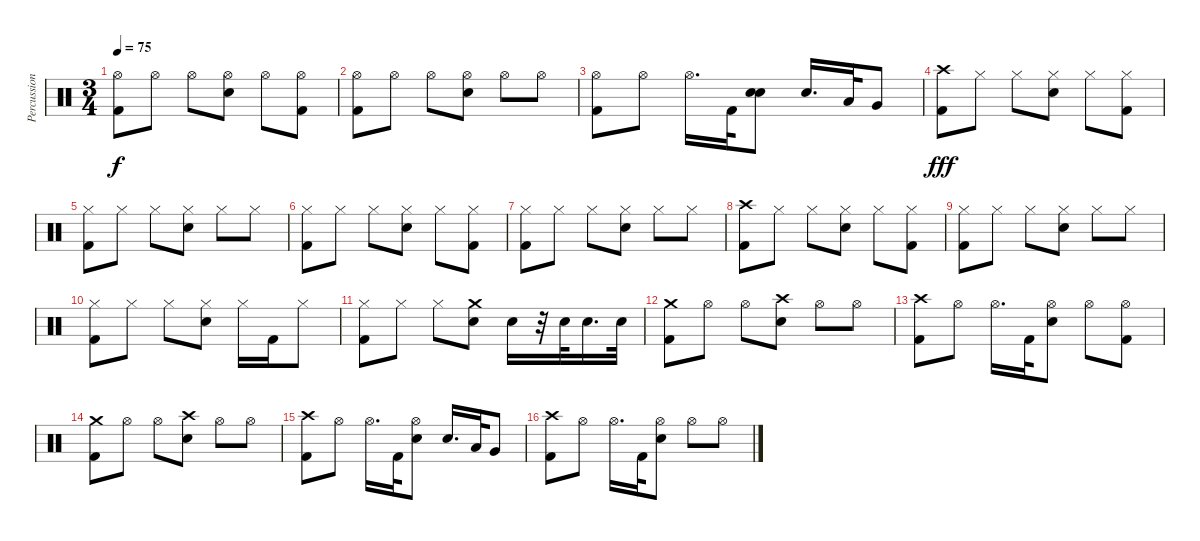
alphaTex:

\track ("Percussions" "Percussion") {instrument percussion}
\staff {score}
\articulation defaults
\ts (3 4)
\tempo 75
\clef neutral
\ks c
("Kick (hit) 2" "Hi-Hat (open)").8{dy f} "Hi-Hat (open)".8 "Hi-Hat (open)".8 ("Snare (hit) 2" "Hi-Hat (open)").8 "Hi-Hat (open)".8 ("Kick (hit) 2" "Hi-Hat (open)").8 |
("Kick (hit) 2" "Hi-Hat (open)").8 "Hi-Hat (open)".8 "Hi-Hat (open)".8 ("Snare (hit) 2" "Hi-Hat (open)").8 "Hi-Hat (open)".8 "Hi-Hat (open)".8 |
("Kick (hit) 2" "Hi-Hat (open)").8 "Hi-Hat (open)".8 "Hi-Hat (open)".16{d} "Kick (hit) 2".32 ("Snare (hit) 2" "Snare (hit) 2").8{bd 120} "Snare (hit) 2".16{d} "Low Tom (hit)".32 "Very Low Tom (hit)".8 |
("Kick (hit) 2" "Crash high (hit)").8{dy fff} "Hi-Hat (closed)".8 "Hi-Hat (closed)".8 ("Snare (hit) 2" "Hi-Hat (closed)").8 "Hi-Hat (closed)".8 ("Kick (hit) 2" "Hi-Hat (closed)").8 |
("Kick (hit) 2" "Hi-Hat (closed)").8 "Hi-Hat (closed)".8 "Hi-Hat (closed)".8 ("Snare (hit) 2" "Hi-Hat (closed)").8 "Hi-Hat (closed)".8 "Hi-Hat (closed)".8 |
("Kick (hit) 2" "Hi-Hat (closed)").8 "Hi-Hat (closed)".8 "Hi-Hat (closed)".8 ("Snare (hit) 2" "Hi-Hat (closed)").8 "Hi-Hat (closed)".8 ("Kick (hit) 2" "Hi-Hat (closed)").8 |
("Kick (hit) 2" "Hi-Hat (closed)").8 "Hi-Hat (closed)".8 "Hi-Hat (closed)".8 ("Snare (hit) 2" "Hi-Hat (closed)").8 "Hi-Hat (closed)".8 "Hi-Hat (closed)".8 |
("Kick (hit) 2" "Crash high (hit)").8 "Hi-Hat (closed)".8 "Hi-Hat (closed)".8 ("Snare (hit) 2" "Hi-Hat (closed)").8 "Hi-Hat (closed)".8 ("Kick (hit) 2" "Hi-Hat (closed)").8 |
("Kick (hit) 2" "Hi-Hat (closed)").8 "Hi-Hat (closed)".8 "Hi-Hat (closed)".8 ("Snare (hit) 2" "Hi-Hat (closed)").8 "Hi-Hat (closed)".8 "Hi-Hat (closed)".8 |
("Kick (hit) 2" "Hi-Hat (closed)").8 "Hi-Hat (closed)".8 "Hi-Hat (closed)".8 ("Snare (hit) 2" "Hi-Hat (closed)").8 "Hi-Hat (closed)".16 "Kick (hit) 2".16 "Hi-Hat (closed)".8 |
("Kick (hit) 2" "Hi-Hat (closed)").8 "Hi-Hat (closed)".8 "Hi-Hat (closed)".8 ("Snare (hit) 2" "Crash medium (hit)").8 "Snare (hit) 2".16 r.32 "Snare (hit) 2".32 "Snare (hit) 2".16{d} "Snare (hit) 2".32 |
("Kick (hit) 2" "Crash medium (hit)").8 "Hi-Hat (open)".8 "Hi-Hat (open)".8 ("Snare (hit) 2" "Crash high (hit)").8 "Hi-Hat (open)".8 "Hi-Hat (open)".8 |
("Kick (hit) 2" "Crash high (hit)").8 "Hi-Hat (open)".8 "Hi-Hat (open)".16{d} "Kick (hit) 2".32 ("Snare (hit) 2" "Hi-Hat (open)").8 "Hi-Hat (open)".8 ("Kick (hit) 2" "Hi-Hat (open)").8 |
("Kick (hit) 2" "Crash medium (hit)").8 "Hi-Hat (open)".8 "Hi-Hat (open)".8 ("Snare (hit) 2" "Crash high (hit)").8 "Hi-Hat (open)".8 "Hi-Hat (open)".8 |
("Kick (hit) 2" "Crash high (hit)").8 "Hi-Hat (open)".8 "Hi-Hat (open)".16{d} "Kick (hit) 2".32 ("Snare (hit) 2" "Hi-Hat (open)").8 "Snare (hit) 2".16{d} "Low Tom (hit)".32 "Very Low Tom (hit)".8 |
("Kick (hit) 2" "Crash high (hit)").8 "Hi-Hat (open)".8 "Hi-Hat (open)".16{d} "Kick (hit) 2".32 ("Snare (hit) 2" "Hi-Hat (open)").8 "Hi-Hat (open)".8 "Hi-Hat (open)".8
